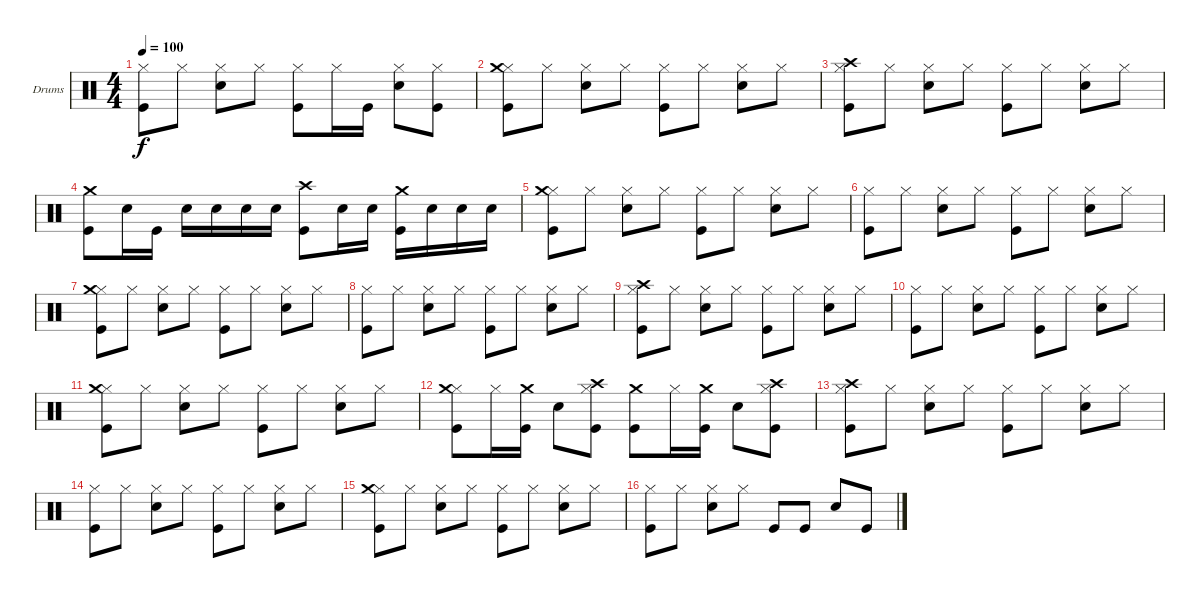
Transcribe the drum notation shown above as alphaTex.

\defaultSystemsLayout 4
\bracketExtendMode groupsimilarinstruments
\firstSystemTrackNameOrientation horizontal
\otherSystemsTrackNameOrientation horizontal
\track ("Nick Menza " "Drums") {instrument percussion}
\staff {score}
\articulation defaults
\ts (4 4)
\tempo 100
\clef neutral
\ks c
("Hi-Hat (closed)" "Kick (hit)").8{dy f} "Hi-Hat (closed)".8 ("Hi-Hat (closed)" "Snare (hit) 2").8 "Hi-Hat (closed)".8 ("Hi-Hat (closed)" "Kick (hit)").8 "Hi-Hat (closed)".16 "Kick (hit)".16 ("Hi-Hat (closed)" "Snare (hit) 2").8 ("Hi-Hat (closed)" "Kick (hit)").8 |
("Hi-Hat (closed)" "Kick (hit)" "Crash medium (hit)").8 "Hi-Hat (closed)".8 ("Hi-Hat (closed)" "Snare (hit) 2").8 "Hi-Hat (closed)".8 ("Hi-Hat (closed)" "Kick (hit)").8 "Hi-Hat (closed)".8 ("Hi-Hat (closed)" "Snare (hit) 2").8 "Hi-Hat (closed)".8 |
("Hi-Hat (closed)" "Kick (hit)" "Crash high (hit)").8 "Hi-Hat (closed)".8 ("Hi-Hat (closed)" "Snare (hit) 2").8 "Hi-Hat (closed)".8 ("Hi-Hat (closed)" "Kick (hit)").8 "Hi-Hat (closed)".8 ("Hi-Hat (closed)" "Snare (hit) 2").8 "Hi-Hat (closed)".8 |
("Kick (hit)" "Crash medium (hit)").8 "Snare (hit) 2".16 "Kick (hit)".16 "Snare (hit) 2".16 "Snare (hit) 2".16 "Snare (hit) 2".16 "Snare (hit) 2".16 ("Kick (hit)" "Crash high (hit)").8 "Snare (hit) 2".16 "Snare (hit) 2".16 ("Kick (hit)" "Crash medium (hit)").16 "Snare (hit) 2".16 "Snare (hit) 2".16 "Snare (hit) 2".16 |
("Hi-Hat (closed)" "Kick (hit)" "Crash medium (hit)").8 "Hi-Hat (closed)".8 ("Hi-Hat (closed)" "Snare (hit) 2").8 "Hi-Hat (closed)".8 ("Hi-Hat (closed)" "Kick (hit)").8 "Hi-Hat (closed)".8 ("Hi-Hat (closed)" "Snare (hit) 2").8 "Hi-Hat (closed)".8 |
("Hi-Hat (closed)" "Kick (hit)").8 "Hi-Hat (closed)".8 ("Hi-Hat (closed)" "Snare (hit) 2").8 "Hi-Hat (closed)".8 ("Hi-Hat (closed)" "Kick (hit)").8 "Hi-Hat (closed)".8 ("Hi-Hat (closed)" "Snare (hit) 2").8 "Hi-Hat (closed)".8 |
("Hi-Hat (closed)" "Kick (hit)" "Crash medium (hit)").8 "Hi-Hat (closed)".8 ("Hi-Hat (closed)" "Snare (hit) 2").8 "Hi-Hat (closed)".8 ("Hi-Hat (closed)" "Kick (hit)").8 "Hi-Hat (closed)".8 ("Hi-Hat (closed)" "Snare (hit) 2").8 "Hi-Hat (closed)".8 |
("Hi-Hat (closed)" "Kick (hit)").8 "Hi-Hat (closed)".8 ("Hi-Hat (closed)" "Snare (hit) 2").8 "Hi-Hat (closed)".8 ("Hi-Hat (closed)" "Kick (hit)").8 "Hi-Hat (closed)".8 ("Hi-Hat (closed)" "Snare (hit) 2").8 "Hi-Hat (closed)".8 |
("Hi-Hat (closed)" "Kick (hit)" "Crash high (hit)").8 "Hi-Hat (closed)".8 ("Hi-Hat (closed)" "Snare (hit) 2").8 "Hi-Hat (closed)".8 ("Hi-Hat (closed)" "Kick (hit)").8 "Hi-Hat (closed)".8 ("Hi-Hat (closed)" "Snare (hit) 2").8 "Hi-Hat (closed)".8 |
("Hi-Hat (closed)" "Kick (hit)").8 "Hi-Hat (closed)".8 ("Hi-Hat (closed)" "Snare (hit) 2").8 "Hi-Hat (closed)".8 ("Hi-Hat (closed)" "Kick (hit)").8 "Hi-Hat (closed)".8 ("Hi-Hat (closed)" "Snare (hit) 2").8 "Hi-Hat (closed)".8 |
("Hi-Hat (closed)" "Kick (hit)" "Crash medium (hit)").8 "Hi-Hat (closed)".8 ("Hi-Hat (closed)" "Snare (hit) 2").8 "Hi-Hat (closed)".8 ("Hi-Hat (closed)" "Kick (hit)").8 "Hi-Hat (closed)".8 ("Hi-Hat (closed)" "Snare (hit) 2").8 "Hi-Hat (closed)".8 |
("Hi-Hat (closed)" "Kick (hit)" "Crash medium (hit)").8 "Hi-Hat (closed)".16 ("Kick (hit)" "Crash medium (hit)").16 "Snare (hit) 2".8 ("Hi-Hat (closed)" "Kick (hit)" "Crash high (hit)").8 ("Kick (hit)" "Crash medium (hit)").8 "Hi-Hat (closed)".16 ("Kick (hit)" "Crash medium (hit)").16 "Snare (hit) 2".8 ("Hi-Hat (closed)" "Kick (hit)" "Crash high (hit)").8 |
("Hi-Hat (closed)" "Kick (hit)" "Crash high (hit)").8 "Hi-Hat (closed)".8 ("Hi-Hat (closed)" "Snare (hit) 2").8 "Hi-Hat (closed)".8 ("Hi-Hat (closed)" "Kick (hit)").8 "Hi-Hat (closed)".8 ("Hi-Hat (closed)" "Snare (hit) 2").8 "Hi-Hat (closed)".8 |
("Hi-Hat (closed)" "Kick (hit)").8 "Hi-Hat (closed)".8 ("Hi-Hat (closed)" "Snare (hit) 2").8 "Hi-Hat (closed)".8 ("Hi-Hat (closed)" "Kick (hit)").8 "Hi-Hat (closed)".8 ("Hi-Hat (closed)" "Snare (hit) 2").8 "Hi-Hat (closed)".8 |
("Hi-Hat (closed)" "Kick (hit)" "Crash medium (hit)").8 "Hi-Hat (closed)".8 ("Hi-Hat (closed)" "Snare (hit) 2").8 "Hi-Hat (closed)".8 ("Hi-Hat (closed)" "Kick (hit)").8 "Hi-Hat (closed)".8 ("Hi-Hat (closed)" "Snare (hit) 2").8 "Hi-Hat (closed)".8 |
("Hi-Hat (closed)" "Kick (hit)").8 "Hi-Hat (closed)".8 ("Hi-Hat (closed)" "Snare (hit) 2").8 "Hi-Hat (closed)".8 "Kick (hit)".8 "Kick (hit)".8 "Snare (hit) 2".8 "Kick (hit)".8
